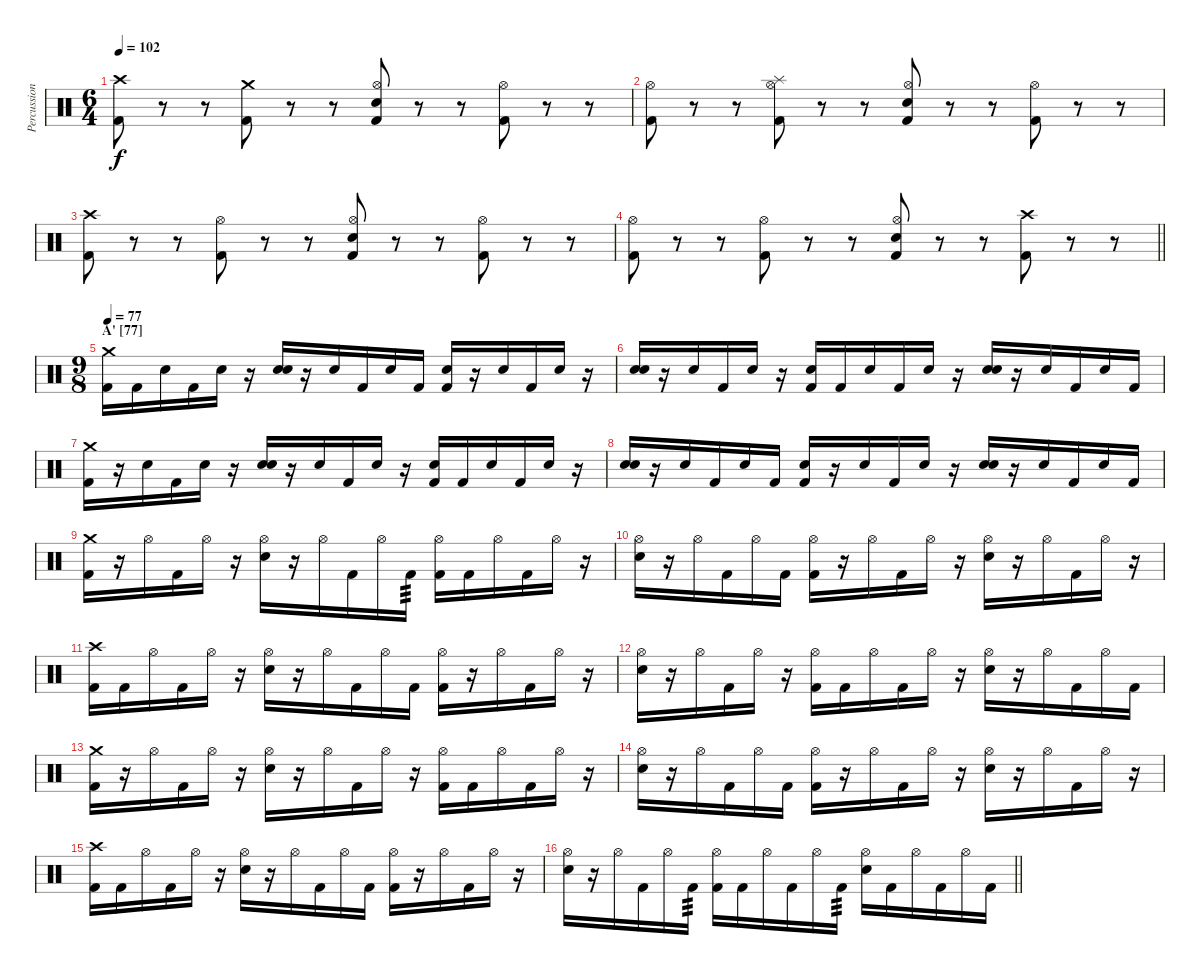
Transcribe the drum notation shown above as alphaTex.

\track ("Percussion" "Percussion") {solo instrument percussion}
\staff {score}
\articulation defaults
\ts (6 4)
\tempo 102
\clef neutral
\ks c
("Crash high (hit)" "Kick (hit) 2").8{dy f} r.8 r.8 ("Crash medium (hit)" "Kick (hit) 2").8 r.8 r.8 ("Hi-Hat (open)" "Snare (hit) 2" "Kick (hit) 2").8 r.8 r.8 ("Hi-Hat (open)" "Kick (hit) 2").8 r.8 r.8 |
("Hi-Hat (open)" "Kick (hit) 2").8 r.8 r.8 ("Hi-Hat (open)" "Splash (hit)" "Kick (hit) 2").8 r.8 r.8 ("Hi-Hat (open)" "Snare (hit) 2" "Kick (hit) 2").8 r.8 r.8 ("Hi-Hat (open)" "Kick (hit) 2").8 r.8 r.8 |
("Crash high (hit)" "Kick (hit) 2").8 r.8 r.8 ("Hi-Hat (open)" "Kick (hit) 2").8 r.8 r.8 ("Hi-Hat (open)" "Snare (hit) 2" "Kick (hit) 2").8 r.8 r.8 ("Hi-Hat (open)" "Kick (hit) 2").8 r.8 r.8 |
\barLineRight lightlight
("Hi-Hat (open)" "Kick (hit) 2").8 r.8 r.8 ("Hi-Hat (open)" "Kick (hit) 2").8 r.8 r.8 ("Hi-Hat (open)" "Snare (hit) 2" "Kick (hit) 2").8 r.8 r.8 ("Crash high (hit)" "Kick (hit) 2").8 r.8 r.8 |
\ts (9 8)
\section ("" "A' [77]")
\tempo 77
("Crash medium (hit)" "Kick (hit) 2").16 "Kick (hit) 2".16 "Snare (hit)".16 "Kick (hit) 2".16 "Snare (hit)".16 r.16 ("Snare (hit)" "Snare (hit) 2").16 r.16 "Snare (hit)".16 "Kick (hit) 2".16 "Snare (hit)".16 "Kick (hit) 2".16 ("Snare (hit)" "Kick (hit) 2").16 r.16 "Snare (hit)".16 "Kick (hit) 2".16 "Snare (hit)".16 r.16 |
("Snare (hit)" "Snare (hit) 2").16 r.16 "Snare (hit)".16 "Kick (hit) 2".16 "Snare (hit)".16 r.16 ("Snare (hit)" "Kick (hit) 2").16 "Kick (hit) 2".16 "Snare (hit)".16 "Kick (hit) 2".16 "Snare (hit)".16 r.16 ("Snare (hit)" "Snare (hit) 2").16 r.16 "Snare (hit)".16 "Kick (hit) 2".16 "Snare (hit)".16 "Kick (hit) 2".16 |
("Crash medium (hit)" "Kick (hit) 2").16 r.16 "Snare (hit)".16 "Kick (hit) 2".16 "Snare (hit)".16 r.16 ("Snare (hit)" "Snare (hit) 2").16 r.16 "Snare (hit)".16 "Kick (hit) 2".16 "Snare (hit)".16 r.16 ("Snare (hit)" "Kick (hit) 2").16 "Kick (hit) 2".16 "Snare (hit)".16 "Kick (hit) 2".16 "Snare (hit)".16 r.16 |
("Snare (hit)" "Snare (hit) 2").16 r.16 "Snare (hit)".16 "Kick (hit) 2".16 "Snare (hit)".16 "Kick (hit) 2".16 ("Snare (hit)" "Kick (hit) 2").16 r.16 "Snare (hit)".16 "Kick (hit) 2".16 "Snare (hit)".16 r.16 ("Snare (hit)" "Snare (hit) 2").16 r.16 "Snare (hit)".16 "Kick (hit) 2".16 "Snare (hit)".16 "Kick (hit) 2".16 |
("Crash medium (hit)" "Kick (hit) 2").16 r.16 "Hi-Hat (open)".16 "Kick (hit) 2".16 "Hi-Hat (open)".16 r.16 ("Hi-Hat (open)" "Snare (hit) 2").16 r.16 "Hi-Hat (open)".16 "Kick (hit) 2".16 "Hi-Hat (open)".16 "Kick (hit) 2".16{tp 3} ("Hi-Hat (open)" "Kick (hit) 2").16 "Kick (hit) 2".16 "Hi-Hat (open)".16 "Kick (hit) 2".16 "Hi-Hat (open)".16 r.16 |
("Hi-Hat (open)" "Snare (hit) 2").16 r.16 "Hi-Hat (open)".16 "Kick (hit) 2".16 "Hi-Hat (open)".16 "Kick (hit) 2".16 ("Hi-Hat (open)" "Kick (hit) 2").16 r.16 "Hi-Hat (open)".16 "Kick (hit) 2".16 "Hi-Hat (open)".16 r.16 ("Hi-Hat (open)" "Snare (hit) 2").16 r.16 "Hi-Hat (open)".16 "Kick (hit) 2".16 "Hi-Hat (open)".16 r.16 |
("Crash high (hit)" "Kick (hit) 2").16 "Kick (hit) 2".16 "Hi-Hat (open)".16 "Kick (hit) 2".16 "Hi-Hat (open)".16 r.16 ("Hi-Hat (open)" "Snare (hit) 2").16 r.16 "Hi-Hat (open)".16 "Kick (hit) 2".16 "Hi-Hat (open)".16 "Kick (hit) 2".16 ("Hi-Hat (open)" "Kick (hit) 2").16 r.16 "Hi-Hat (open)".16 "Kick (hit) 2".16 "Hi-Hat (open)".16 r.16 |
("Hi-Hat (open)" "Snare (hit) 2").16 r.16 "Hi-Hat (open)".16 "Kick (hit) 2".16 "Hi-Hat (open)".16 r.16 ("Hi-Hat (open)" "Kick (hit) 2").16 "Kick (hit) 2".16 "Hi-Hat (open)".16 "Kick (hit) 2".16 "Hi-Hat (open)".16 r.16 ("Hi-Hat (open)" "Snare (hit) 2").16 r.16 "Hi-Hat (open)".16 "Kick (hit) 2".16 "Hi-Hat (open)".16 "Kick (hit) 2".16 |
("Crash medium (hit)" "Kick (hit) 2").16 r.16 "Hi-Hat (open)".16 "Kick (hit) 2".16 "Hi-Hat (open)".16 r.16 ("Hi-Hat (open)" "Snare (hit) 2").16 r.16 "Hi-Hat (open)".16 "Kick (hit) 2".16 "Hi-Hat (open)".16 r.16 ("Hi-Hat (open)" "Kick (hit) 2").16 "Kick (hit) 2".16 "Hi-Hat (open)".16 "Kick (hit) 2".16 "Hi-Hat (open)".16 r.16 |
("Hi-Hat (open)" "Snare (hit) 2").16 r.16 "Hi-Hat (open)".16 "Kick (hit) 2".16 "Hi-Hat (open)".16 "Kick (hit) 2".16 ("Hi-Hat (open)" "Kick (hit) 2").16 r.16 "Hi-Hat (open)".16 "Kick (hit) 2".16 "Hi-Hat (open)".16 r.16 ("Hi-Hat (open)" "Snare (hit) 2").16 r.16 "Hi-Hat (open)".16 "Kick (hit) 2".16 "Hi-Hat (open)".16 r.16 |
("Crash high (hit)" "Kick (hit) 2").16 "Kick (hit) 2".16 "Hi-Hat (open)".16 "Kick (hit) 2".16 "Hi-Hat (open)".16 r.16 ("Hi-Hat (open)" "Snare (hit) 2").16 r.16 "Hi-Hat (open)".16 "Kick (hit) 2".16 "Hi-Hat (open)".16 "Kick (hit) 2".16 ("Hi-Hat (open)" "Kick (hit) 2").16 r.16 "Hi-Hat (open)".16 "Kick (hit) 2".16 "Hi-Hat (open)".16 r.16 |
\barLineRight lightlight
("Hi-Hat (open)" "Snare (hit) 2").16 r.16 "Hi-Hat (open)".16 "Kick (hit) 2".16 "Hi-Hat (open)".16 "Kick (hit) 2".16{tp 3} ("Hi-Hat (open)" "Kick (hit) 2").16 "Kick (hit) 2".16 "Hi-Hat (open)".16 "Kick (hit) 2".16 "Hi-Hat (open)".16 "Kick (hit) 2".16{tp 3} ("Hi-Hat (open)" "Snare (hit) 2").16 "Kick (hit) 2".16 "Hi-Hat (open)".16 "Kick (hit) 2".16 "Hi-Hat (open)".16 "Kick (hit) 2".16
